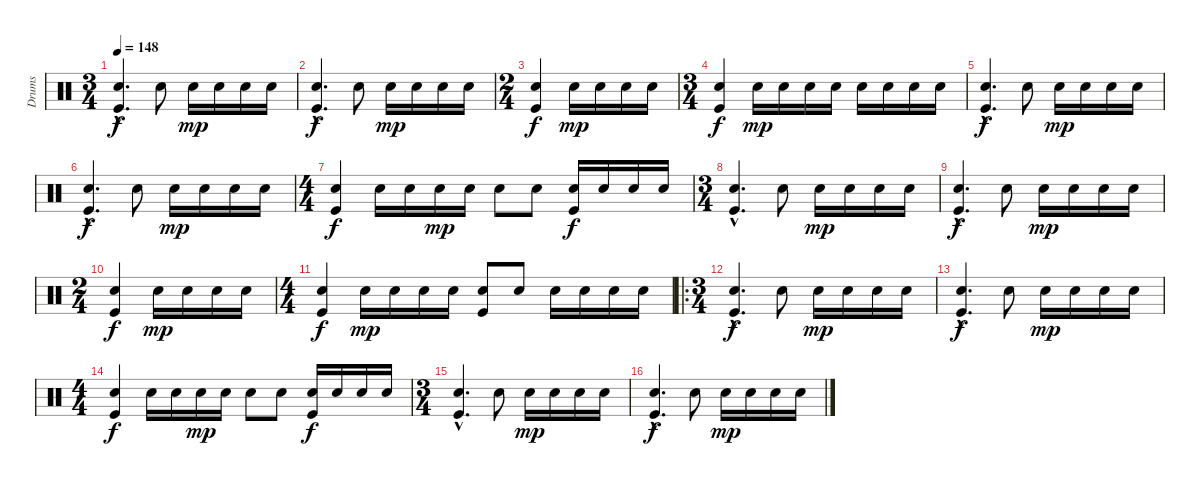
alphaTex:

\track ("Drums" "Drums") {instrument percussion}
\staff {score}
\articulation defaults
\ts (3 4)
\tempo 148
\clef neutral
\ks c
("Snare (hit) 2"{hac} "Kick (hit)"{hac}).4{d dy f} "Snare (hit) 2".8 "Snare (hit) 2".16{dy mp} "Snare (hit) 2".16 "Snare (hit) 2".16 "Snare (hit) 2".16 |
("Snare (hit) 2"{hac} "Kick (hit)"{hac}).4{d dy f} "Snare (hit) 2".8 "Snare (hit) 2".16{dy mp} "Snare (hit) 2".16 "Snare (hit) 2".16 "Snare (hit) 2".16 |
\ts (2 4)
("Snare (hit) 2" "Kick (hit)").4{dy f} "Snare (hit) 2".16{dy mp} "Snare (hit) 2".16 "Snare (hit) 2".16 "Snare (hit) 2".16 |
\ts (3 4)
("Snare (hit) 2" "Kick (hit)").4{dy f} "Snare (hit) 2".16{dy mp} "Snare (hit) 2".16 "Snare (hit) 2".16 "Snare (hit) 2".16 "Snare (hit) 2".16 "Snare (hit) 2".16 "Snare (hit) 2".16 "Snare (hit) 2".16 |
("Snare (hit) 2"{hac} "Kick (hit)"{hac}).4{d dy f} "Snare (hit) 2".8 "Snare (hit) 2".16{dy mp} "Snare (hit) 2".16 "Snare (hit) 2".16 "Snare (hit) 2".16 |
("Snare (hit) 2"{hac} "Kick (hit)"{hac}).4{d dy f} "Snare (hit) 2".8 "Snare (hit) 2".16{dy mp} "Snare (hit) 2".16 "Snare (hit) 2".16 "Snare (hit) 2".16 |
\ts (4 4)
("Snare (hit) 2" "Kick (hit)").4{dy f} "Snare (hit) 2".16 "Snare (hit) 2".16 "Snare (hit) 2".16{dy mp} "Snare (hit) 2".16 "Snare (hit) 2".8 "Snare (hit) 2".8 ("Kick (hit)" "Snare (hit) 2").16{dy f} "Snare (hit) 2".16 "Snare (hit) 2".16 "Snare (hit) 2".16 |
\ts (3 4)
("Snare (hit) 2"{hac} "Kick (hit)"{hac}).4{d} "Snare (hit) 2".8 "Snare (hit) 2".16{dy mp} "Snare (hit) 2".16 "Snare (hit) 2".16 "Snare (hit) 2".16 |
("Snare (hit) 2"{hac} "Kick (hit)"{hac}).4{d dy f} "Snare (hit) 2".8 "Snare (hit) 2".16{dy mp} "Snare (hit) 2".16 "Snare (hit) 2".16 "Snare (hit) 2".16 |
\ts (2 4)
("Snare (hit) 2" "Kick (hit)").4{dy f} "Snare (hit) 2".16{dy mp} "Snare (hit) 2".16 "Snare (hit) 2".16 "Snare (hit) 2".16 |
\ts (4 4)
("Snare (hit) 2" "Kick (hit)").4{dy f} "Snare (hit) 2".16{dy mp} "Snare (hit) 2".16 "Snare (hit) 2".16 "Snare (hit) 2".16 ("Kick (hit)" "Snare (hit) 2").8 "Snare (hit) 2".8 "Snare (hit) 2".16 "Snare (hit) 2".16 "Snare (hit) 2".16 "Snare (hit) 2".16 |
\ro
\ts (3 4)
("Snare (hit) 2"{hac} "Kick (hit)"{hac}).4{d dy f} "Snare (hit) 2".8 "Snare (hit) 2".16{dy mp} "Snare (hit) 2".16 "Snare (hit) 2".16 "Snare (hit) 2".16 |
("Snare (hit) 2"{hac} "Kick (hit)"{hac}).4{d dy f} "Snare (hit) 2".8 "Snare (hit) 2".16{dy mp} "Snare (hit) 2".16 "Snare (hit) 2".16 "Snare (hit) 2".16 |
\ts (4 4)
("Snare (hit) 2" "Kick (hit)").4{dy f} "Snare (hit) 2".16 "Snare (hit) 2".16 "Snare (hit) 2".16{dy mp} "Snare (hit) 2".16 "Snare (hit) 2".8 "Snare (hit) 2".8 ("Kick (hit)" "Snare (hit) 2").16{dy f} "Snare (hit) 2".16 "Snare (hit) 2".16 "Snare (hit) 2".16 |
\ts (3 4)
("Snare (hit) 2"{hac} "Kick (hit)"{hac}).4{d} "Snare (hit) 2".8 "Snare (hit) 2".16{dy mp} "Snare (hit) 2".16 "Snare (hit) 2".16 "Snare (hit) 2".16 |
("Snare (hit) 2"{hac} "Kick (hit)"{hac}).4{d dy f} "Snare (hit) 2".8 "Snare (hit) 2".16{dy mp} "Snare (hit) 2".16 "Snare (hit) 2".16 "Snare (hit) 2".16
